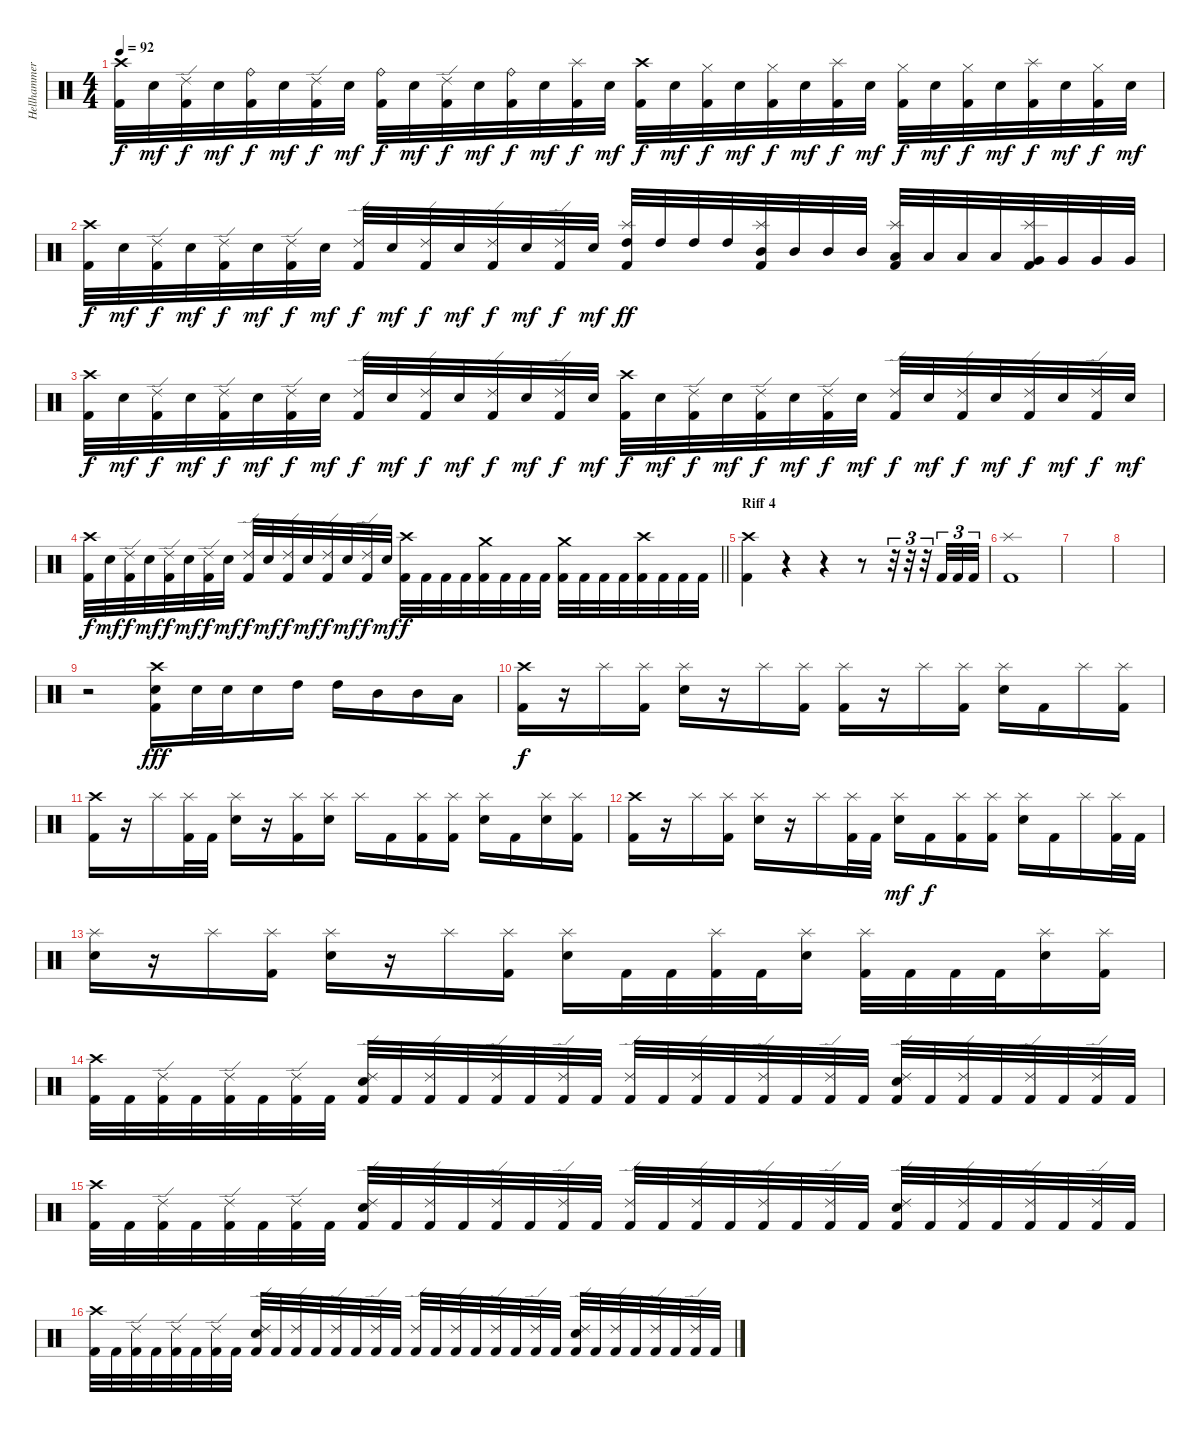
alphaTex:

\track ("Hellhammer" "Hellhammer") {instrument percussion}
\staff {score}
\articulation defaults
\ts (4 4)
\tempo 92
\clef neutral
\ks c
("Crash high (hit)" "Kick (hit) 2").32{dy f} "Electric Snare (hit)".32{dy mf} ("Ride (edge) 2" "Kick (hit) 2").32{dy f} "Electric Snare (hit)".32{dy mf} ("Ride (bell)" "Kick (hit) 2").32{dy f} "Electric Snare (hit)".32{dy mf} ("Ride (edge) 2" "Kick (hit) 2").32{dy f} "Electric Snare (hit)".32{dy mf} ("Ride (bell)" "Kick (hit) 2").32{dy f} "Electric Snare (hit)".32{dy mf} ("Ride (edge) 2" "Kick (hit) 2").32{dy f} "Electric Snare (hit)".32{dy mf} ("Ride (bell)" "Kick (hit) 2").32{dy f} "Electric Snare (hit)".32{dy mf} ("Splash (hit)" "Kick (hit) 2").32{dy f} "Electric Snare (hit)".32{dy mf} ("Crash high (hit)" "Kick (hit) 2").32{dy f} "Electric Snare (hit)".32{dy mf} ("Hi-Hat (closed)" "Kick (hit) 2").32{dy f} "Electric Snare (hit)".32{dy mf} ("Hi-Hat (closed)" "Kick (hit) 2").32{dy f} "Electric Snare (hit)".32{dy mf} ("Splash (hit)" "Kick (hit) 2").32{dy f} "Electric Snare (hit)".32{dy mf} ("Hi-Hat (closed)" "Kick (hit) 2").32{dy f} "Electric Snare (hit)".32{dy mf} ("Hi-Hat (closed)" "Kick (hit) 2").32{dy f} "Electric Snare (hit)".32{dy mf} ("Splash (hit)" "Kick (hit) 2").32{dy f} "Electric Snare (hit)".32{dy mf} ("Hi-Hat (closed)" "Kick (hit) 2").32{dy f} "Electric Snare (hit)".32{dy mf} |
("Crash high (hit)" "Kick (hit) 2").32{dy f} "Electric Snare (hit)".32{dy mf} ("Ride (edge) 2" "Kick (hit) 2").32{dy f} "Electric Snare (hit)".32{dy mf} ("Ride (edge) 2" "Kick (hit) 2").32{dy f} "Electric Snare (hit)".32{dy mf} ("Ride (edge) 2" "Kick (hit) 2").32{dy f} "Electric Snare (hit)".32{dy mf} ("Ride (edge) 2" "Kick (hit) 2").32{dy f} "Electric Snare (hit)".32{dy mf} ("Ride (edge) 2" "Kick (hit) 2").32{dy f} "Electric Snare (hit)".32{dy mf} ("Ride (edge) 2" "Kick (hit) 2").32{dy f} "Electric Snare (hit)".32{dy mf} ("Ride (edge) 2" "Kick (hit) 2").32{dy f} "Electric Snare (hit)".32{dy mf} ("Splash (hit)" "High Tom (hit)" "Kick (hit) 2").32{dy ff} "High Tom (hit)".32 "High Tom (hit)".32 "High Tom (hit)".32 ("Splash (hit)" "Mid Tom (hit)" "Kick (hit) 2").32 "Mid Tom (hit)".32 "Mid Tom (hit)".32 "Mid Tom (hit)".32 ("Splash (hit)" "Low Tom (hit)" "Kick (hit) 2").32 "Low Tom (hit)".32 "Low Tom (hit)".32 "Low Tom (hit)".32 ("Kick (hit) 2" "Splash (hit)" "Very Low Tom (hit)").32 "Very Low Tom (hit)".32 "Very Low Tom (hit)".32 "Very Low Tom (hit)".32 |
("Crash high (hit)" "Kick (hit) 2").32{dy f} "Electric Snare (hit)".32{dy mf} ("Ride (edge) 2" "Kick (hit) 2").32{dy f} "Electric Snare (hit)".32{dy mf} ("Ride (edge) 2" "Kick (hit) 2").32{dy f} "Electric Snare (hit)".32{dy mf} ("Ride (edge) 2" "Kick (hit) 2").32{dy f} "Electric Snare (hit)".32{dy mf} ("Ride (edge) 2" "Kick (hit) 2").32{dy f} "Electric Snare (hit)".32{dy mf} ("Ride (edge) 2" "Kick (hit) 2").32{dy f} "Electric Snare (hit)".32{dy mf} ("Ride (edge) 2" "Kick (hit) 2").32{dy f} "Electric Snare (hit)".32{dy mf} ("Ride (edge) 2" "Kick (hit) 2").32{dy f} "Electric Snare (hit)".32{dy mf} ("Crash high (hit)" "Kick (hit) 2").32{dy f} "Electric Snare (hit)".32{dy mf} ("Ride (edge) 2" "Kick (hit) 2").32{dy f} "Electric Snare (hit)".32{dy mf} ("Ride (edge) 2" "Kick (hit) 2").32{dy f} "Electric Snare (hit)".32{dy mf} ("Ride (edge) 2" "Kick (hit) 2").32{dy f} "Electric Snare (hit)".32{dy mf} ("Ride (edge) 2" "Kick (hit) 2").32{dy f} "Electric Snare (hit)".32{dy mf} ("Ride (edge) 2" "Kick (hit) 2").32{dy f} "Electric Snare (hit)".32{dy mf} ("Ride (edge) 2" "Kick (hit) 2").32{dy f} "Electric Snare (hit)".32{dy mf} ("Ride (edge) 2" "Kick (hit) 2").32{dy f} "Electric Snare (hit)".32{dy mf} |
\barLineRight lightlight
("Crash high (hit)" "Kick (hit) 2").32{dy f} "Electric Snare (hit)".32{dy mf} ("Ride (edge) 2" "Kick (hit) 2").32{dy f} "Electric Snare (hit)".32{dy mf} ("Ride (edge) 2" "Kick (hit) 2").32{dy f} "Electric Snare (hit)".32{dy mf} ("Ride (edge) 2" "Kick (hit) 2").32{dy f} "Electric Snare (hit)".32{dy mf} ("Ride (edge) 2" "Kick (hit) 2").32{dy f} "Electric Snare (hit)".32{dy mf} ("Ride (edge) 2" "Kick (hit) 2").32{dy f} "Electric Snare (hit)".32{dy mf} ("Ride (edge) 2" "Kick (hit) 2").32{dy f} "Electric Snare (hit)".32{dy mf} ("Ride (edge) 2" "Kick (hit) 2").32{dy f} "Electric Snare (hit)".32{dy mf} ("Crash high (hit)" "Kick (hit) 2").32{dy f} "Kick (hit) 2".32 "Kick (hit) 2".32 "Kick (hit) 2".32 ("Crash medium (hit)" "Kick (hit) 2").32 "Kick (hit) 2".32 "Kick (hit) 2".32 "Kick (hit) 2".32 ("Crash medium (hit)" "Kick (hit) 2").32 "Kick (hit) 2".32 "Kick (hit) 2".32 "Kick (hit) 2".32 ("Crash high (hit)" "Kick (hit) 2").32 "Kick (hit) 2".32 "Kick (hit) 2".32 "Kick (hit) 2".32 |
\section ("" "Riff 4")
("Crash high (hit)" "Kick (hit) 2").4 r.4 r.4 r.8 r.32{tu (3 2)} r.32{tu (3 2)} r.32{tu (3 2)} "Kick (hit) 2".32{tu (3 2)} "Kick (hit) 2".32{tu (3 2)} "Kick (hit) 2".32{tu (3 2)} |
("Splash (hit)" "Kick (hit) 2").1 |
|
|
r.2 ("Crash high (hit)" "Electric Snare (hit)" "Kick (hit) 2").16{dy fff} "Electric Snare (hit)".32 "Electric Snare (hit)".32 "Electric Snare (hit)".16 "High Tom (hit)".16 "High Tom (hit)".16 "Mid Tom (hit)".16 "Mid Tom (hit)".16 "Low Tom (hit)".16 |
("Crash high (hit)" "Kick (hit) 2").16{dy f} r.16 "Splash (hit)".16 ("Splash (hit)" "Kick (hit) 2").16 ("Splash (hit)" "Electric Snare (hit)").16 r.16 "Splash (hit)".16 ("Splash (hit)" "Kick (hit) 2").16 ("Splash (hit)" "Kick (hit) 2").16 r.16 "Splash (hit)".16 ("Splash (hit)" "Kick (hit) 2").16 ("Splash (hit)" "Electric Snare (hit)").16 "Kick (hit) 2".16 "Splash (hit)".16 ("Splash (hit)" "Kick (hit) 2").16 |
("Crash high (hit)" "Kick (hit) 2").16 r.16 "Splash (hit)".16 ("Splash (hit)" "Kick (hit) 2").32 "Kick (hit) 2".32 ("Splash (hit)" "Electric Snare (hit)").16 r.16 ("Splash (hit)" "Kick (hit) 2").16 ("Splash (hit)" "Electric Snare (hit)").16 "Splash (hit)".16 "Kick (hit) 2".16 ("Splash (hit)" "Kick (hit) 2").16 ("Splash (hit)" "Kick (hit) 2").16 ("Splash (hit)" "Electric Snare (hit)").16 "Kick (hit) 2".16 ("Splash (hit)" "Electric Snare (hit)").16 ("Splash (hit)" "Kick (hit) 2").16 |
("Crash high (hit)" "Kick (hit) 2").16 r.16 "Splash (hit)".16 ("Splash (hit)" "Kick (hit) 2").16 ("Splash (hit)" "Electric Snare (hit)").16 r.16 "Splash (hit)".16 ("Splash (hit)" "Kick (hit) 2").32 "Kick (hit) 2".32 ("Splash (hit)" "Electric Snare (hit)").16{dy mf} "Kick (hit) 2".16{dy f} ("Splash (hit)" "Kick (hit) 2").16 ("Splash (hit)" "Kick (hit) 2").16 ("Splash (hit)" "Electric Snare (hit)").16 "Kick (hit) 2".16 "Splash (hit)".16 ("Splash (hit)" "Kick (hit) 2").32 "Kick (hit) 2".32 |
("Splash (hit)" "Electric Snare (hit)").16 r.16 "Splash (hit)".16 ("Splash (hit)" "Kick (hit) 2").16 ("Splash (hit)" "Electric Snare (hit)").16 r.16 "Splash (hit)".16 ("Splash (hit)" "Kick (hit) 2").16 ("Splash (hit)" "Electric Snare (hit)").16 "Kick (hit) 2".32 "Kick (hit) 2".32 ("Splash (hit)" "Kick (hit) 2").32 "Kick (hit) 2".32 ("Splash (hit)" "Electric Snare (hit)").16 ("Splash (hit)" "Kick (hit) 2").32 "Kick (hit) 2".32 "Kick (hit) 2".32 "Kick (hit) 2".32 ("Splash (hit)" "Electric Snare (hit)").16 ("Splash (hit)" "Kick (hit) 2").16 |
("Crash high (hit)" "Kick (hit) 2").32 "Kick (hit) 2".32 ("Ride (edge) 2" "Kick (hit) 2").32 "Kick (hit) 2".32 ("Ride (edge) 2" "Kick (hit) 2").32 "Kick (hit) 2".32 ("Ride (edge) 2" "Kick (hit) 2").32 "Kick (hit) 2".32 ("Ride (edge) 2" "Electric Snare (hit)" "Kick (hit) 2").32 "Kick (hit) 2".32 ("Ride (edge) 2" "Kick (hit) 2").32 "Kick (hit) 2".32 ("Ride (edge) 2" "Kick (hit) 2").32 "Kick (hit) 2".32 ("Ride (edge) 2" "Kick (hit) 2").32 "Kick (hit) 2".32 ("Ride (edge) 2" "Kick (hit) 2").32 "Kick (hit) 2".32 ("Ride (edge) 2" "Kick (hit) 2").32 "Kick (hit) 2".32 ("Ride (edge) 2" "Kick (hit) 2").32 "Kick (hit) 2".32 ("Ride (edge) 2" "Kick (hit) 2").32 "Kick (hit) 2".32 ("Ride (edge) 2" "Electric Snare (hit)" "Kick (hit) 2").32 "Kick (hit) 2".32 ("Ride (edge) 2" "Kick (hit) 2").32 "Kick (hit) 2".32 ("Ride (edge) 2" "Kick (hit) 2").32 "Kick (hit) 2".32 ("Ride (edge) 2" "Kick (hit) 2").32 "Kick (hit) 2".32 |
("Crash high (hit)" "Kick (hit) 2").32 "Kick (hit) 2".32 ("Ride (edge) 2" "Kick (hit) 2").32 "Kick (hit) 2".32 ("Ride (edge) 2" "Kick (hit) 2").32 "Kick (hit) 2".32 ("Ride (edge) 2" "Kick (hit) 2").32 "Kick (hit) 2".32 ("Ride (edge) 2" "Electric Snare (hit)" "Kick (hit) 2").32 "Kick (hit) 2".32 ("Ride (edge) 2" "Kick (hit) 2").32 "Kick (hit) 2".32 ("Ride (edge) 2" "Kick (hit) 2").32 "Kick (hit) 2".32 ("Ride (edge) 2" "Kick (hit) 2").32 "Kick (hit) 2".32 ("Ride (edge) 2" "Kick (hit) 2").32 "Kick (hit) 2".32 ("Ride (edge) 2" "Kick (hit) 2").32 "Kick (hit) 2".32 ("Ride (edge) 2" "Kick (hit) 2").32 "Kick (hit) 2".32 ("Ride (edge) 2" "Kick (hit) 2").32 "Kick (hit) 2".32 ("Ride (edge) 2" "Electric Snare (hit)" "Kick (hit) 2").32 "Kick (hit) 2".32 ("Ride (edge) 2" "Kick (hit) 2").32 "Kick (hit) 2".32 ("Ride (edge) 2" "Kick (hit) 2").32 "Kick (hit) 2".32 ("Ride (edge) 2" "Kick (hit) 2").32 "Kick (hit) 2".32 |
("Crash high (hit)" "Kick (hit) 2").32 "Kick (hit) 2".32 ("Ride (edge) 2" "Kick (hit) 2").32 "Kick (hit) 2".32 ("Ride (edge) 2" "Kick (hit) 2").32 "Kick (hit) 2".32 ("Ride (edge) 2" "Kick (hit) 2").32 "Kick (hit) 2".32 ("Ride (edge) 2" "Electric Snare (hit)" "Kick (hit) 2").32 "Kick (hit) 2".32 ("Ride (edge) 2" "Kick (hit) 2").32 "Kick (hit) 2".32 ("Ride (edge) 2" "Kick (hit) 2").32 "Kick (hit) 2".32 ("Ride (edge) 2" "Kick (hit) 2").32 "Kick (hit) 2".32 ("Ride (edge) 2" "Kick (hit) 2").32 "Kick (hit) 2".32 ("Ride (edge) 2" "Kick (hit) 2").32 "Kick (hit) 2".32 ("Ride (edge) 2" "Kick (hit) 2").32 "Kick (hit) 2".32 ("Ride (edge) 2" "Kick (hit) 2").32 "Kick (hit) 2".32 ("Ride (edge) 2" "Electric Snare (hit)" "Kick (hit) 2").32 "Kick (hit) 2".32 ("Ride (edge) 2" "Kick (hit) 2").32 "Kick (hit) 2".32 ("Ride (edge) 2" "Kick (hit) 2").32 "Kick (hit) 2".32 ("Ride (edge) 2" "Kick (hit) 2").32 "Kick (hit) 2".32
